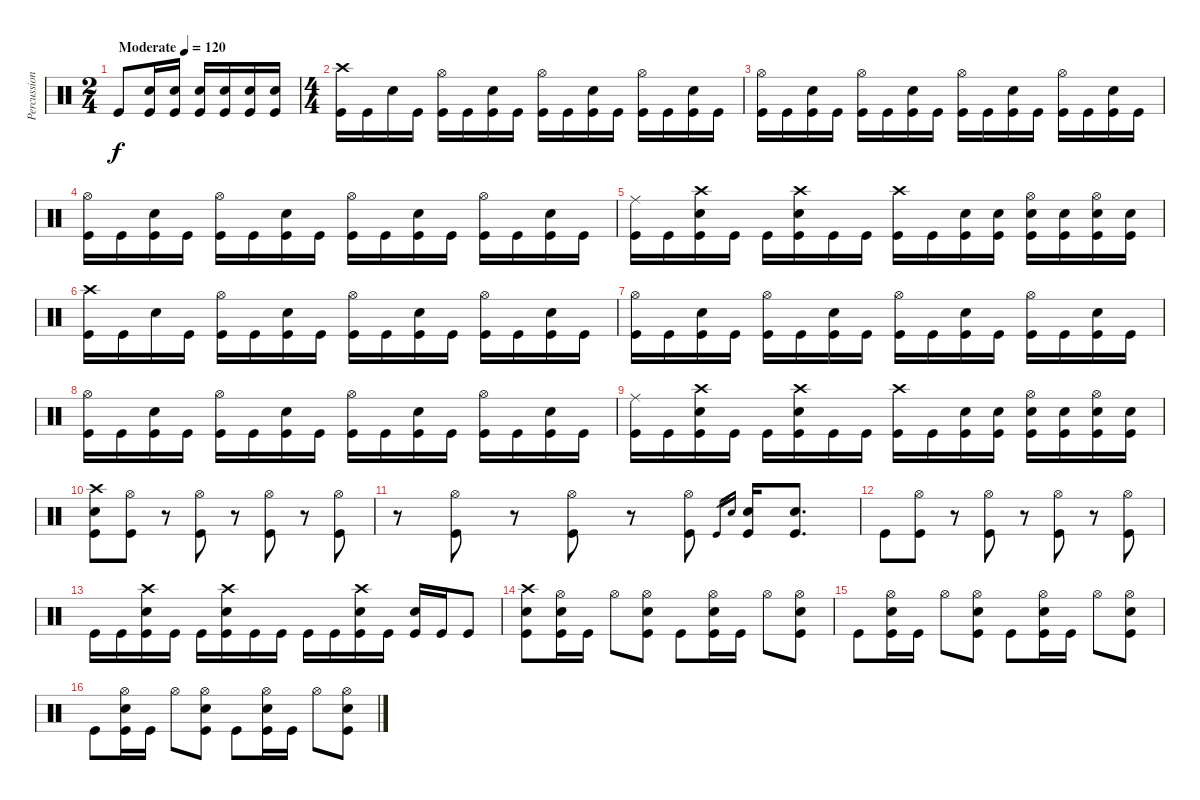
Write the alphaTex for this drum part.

\track ("Percussion" "Percussion") {instrument percussion}
\staff {score}
\articulation defaults
\ts (2 4)
\tempo (120 "Moderate")
\clef neutral
\ks c "Kick (hit)".8{dy f}
("Snare (hit) 2" "Kick (hit)").16 ("Snare (hit) 2" "Kick (hit)").16 ("Kick (hit)" "Snare (hit) 2").16 ("Kick (hit)" "Snare (hit) 2").16 ("Kick (hit)" "Snare (hit) 2").16 ("Kick (hit)" "Snare (hit) 2").16 |
\ts (4 4)
("Crash high (hit)" "Kick (hit)").16 "Kick (hit)".16 "Snare (hit) 2".16 "Kick (hit)".16 ("Kick (hit)" "Hi-Hat (open)").16 "Kick (hit)".16 ("Kick (hit)" "Snare (hit) 2").16 "Kick (hit)".16 ("Kick (hit)" "Hi-Hat (open)").16 "Kick (hit)".16 ("Kick (hit)" "Snare (hit) 2").16 "Kick (hit)".16 ("Kick (hit)" "Hi-Hat (open)").16 "Kick (hit)".16 ("Kick (hit)" "Snare (hit) 2").16 "Kick (hit)".16 |
("Kick (hit)" "Hi-Hat (open)").16 "Kick (hit)".16 ("Kick (hit)" "Snare (hit) 2").16 "Kick (hit)".16 ("Kick (hit)" "Hi-Hat (open)").16 "Kick (hit)".16 ("Kick (hit)" "Snare (hit) 2").16 "Kick (hit)".16 ("Kick (hit)" "Hi-Hat (open)").16 "Kick (hit)".16 ("Kick (hit)" "Snare (hit) 2").16 "Kick (hit)".16 ("Kick (hit)" "Hi-Hat (open)").16 "Kick (hit)".16 ("Kick (hit)" "Snare (hit) 2").16 "Kick (hit)".16 |
("Kick (hit)" "Hi-Hat (open)").16 "Kick (hit)".16 ("Kick (hit)" "Snare (hit) 2").16 "Kick (hit)".16 ("Kick (hit)" "Hi-Hat (open)").16 "Kick (hit)".16 ("Kick (hit)" "Snare (hit) 2").16 "Kick (hit)".16 ("Kick (hit)" "Hi-Hat (open)").16 "Kick (hit)".16 ("Kick (hit)" "Snare (hit) 2").16 "Kick (hit)".16 ("Kick (hit)" "Hi-Hat (open)").16 "Kick (hit)".16 ("Kick (hit)" "Snare (hit) 2").16 "Kick (hit)".16 |
("Kick (hit)" "Ride (middle)").16 "Kick (hit)".16 ("Snare (hit) 2" "Crash high (hit)" "Kick (hit)").16 "Kick (hit)".16 "Kick (hit)".16 ("Snare (hit) 2" "Crash high (hit)" "Kick (hit)").16 "Kick (hit)".16 "Kick (hit)".16 ("Kick (hit)" "Crash high (hit)").16 "Kick (hit)".16 ("Snare (hit) 2" "Kick (hit)").16 ("Kick (hit)" "Snare (hit) 2").16 ("Kick (hit)" "Snare (hit) 2" "Hi-Hat (open)").16 ("Snare (hit) 2" "Kick (hit)").16 ("Kick (hit)" "Snare (hit) 2" "Hi-Hat (open)").16 ("Kick (hit)" "Snare (hit) 2").16 |
("Crash high (hit)" "Kick (hit)").16 "Kick (hit)".16 "Snare (hit) 2".16 "Kick (hit)".16 ("Kick (hit)" "Hi-Hat (open)").16 "Kick (hit)".16 ("Kick (hit)" "Snare (hit) 2").16 "Kick (hit)".16 ("Kick (hit)" "Hi-Hat (open)").16 "Kick (hit)".16 ("Kick (hit)" "Snare (hit) 2").16 "Kick (hit)".16 ("Kick (hit)" "Hi-Hat (open)").16 "Kick (hit)".16 ("Kick (hit)" "Snare (hit) 2").16 "Kick (hit)".16 |
("Kick (hit)" "Hi-Hat (open)").16 "Kick (hit)".16 ("Kick (hit)" "Snare (hit) 2").16 "Kick (hit)".16 ("Kick (hit)" "Hi-Hat (open)").16 "Kick (hit)".16 ("Kick (hit)" "Snare (hit) 2").16 "Kick (hit)".16 ("Kick (hit)" "Hi-Hat (open)").16 "Kick (hit)".16 ("Kick (hit)" "Snare (hit) 2").16 "Kick (hit)".16 ("Kick (hit)" "Hi-Hat (open)").16 "Kick (hit)".16 ("Kick (hit)" "Snare (hit) 2").16 "Kick (hit)".16 |
("Kick (hit)" "Hi-Hat (open)").16 "Kick (hit)".16 ("Kick (hit)" "Snare (hit) 2").16 "Kick (hit)".16 ("Kick (hit)" "Hi-Hat (open)").16 "Kick (hit)".16 ("Kick (hit)" "Snare (hit) 2").16 "Kick (hit)".16 ("Kick (hit)" "Hi-Hat (open)").16 "Kick (hit)".16 ("Kick (hit)" "Snare (hit) 2").16 "Kick (hit)".16 ("Kick (hit)" "Hi-Hat (open)").16 "Kick (hit)".16 ("Kick (hit)" "Snare (hit) 2").16 "Kick (hit)".16 |
("Kick (hit)" "Ride (middle)").16 "Kick (hit)".16 ("Snare (hit) 2" "Crash high (hit)" "Kick (hit)").16 "Kick (hit)".16 "Kick (hit)".16 ("Snare (hit) 2" "Crash high (hit)" "Kick (hit)").16 "Kick (hit)".16 "Kick (hit)".16 ("Kick (hit)" "Crash high (hit)").16 "Kick (hit)".16 ("Snare (hit) 2" "Kick (hit)").16 ("Kick (hit)" "Snare (hit) 2").16 ("Kick (hit)" "Snare (hit) 2" "Hi-Hat (open)").16 ("Snare (hit) 2" "Kick (hit)").16 ("Kick (hit)" "Snare (hit) 2" "Hi-Hat (open)").16 ("Kick (hit)" "Snare (hit) 2").16 |
("Snare (hit) 2" "Kick (hit)" "Crash high (hit)").8 ("Hi-Hat (open)" "Kick (hit)").8 r.8 ("Hi-Hat (open)" "Kick (hit)").8 r.8 ("Kick (hit)" "Hi-Hat (open)").8 r.8 ("Kick (hit)" "Hi-Hat (open)").8 |
r.8 ("Hi-Hat (open)" "Kick (hit)").8 r.8 ("Kick (hit)" "Hi-Hat (open)").8 r.8 ("Kick (hit)" "Hi-Hat (open)").8 "Kick (hit)".16{gr} "Snare (hit) 2".16{gr} ("Kick (hit)" "Snare (hit) 2").16 ("Kick (hit)" "Snare (hit) 2").8{d} |
"Kick (hit)".8 ("Hi-Hat (open)" "Kick (hit)").8 r.8 ("Kick (hit)" "Hi-Hat (open)").8 r.8 ("Kick (hit)" "Hi-Hat (open)").8 r.8 ("Kick (hit)" "Hi-Hat (open)").8 |
"Kick (hit)".16 "Kick (hit)".16 ("Snare (hit) 2" "Crash high (hit)" "Kick (hit)").16 "Kick (hit)".16 "Kick (hit)".16 ("Snare (hit) 2" "Crash high (hit)" "Kick (hit)").16 "Kick (hit)".16 "Kick (hit)".16 "Kick (hit)".16 "Kick (hit)".16 ("Snare (hit) 2" "Kick (hit)" "Crash high (hit)").16 "Kick (hit)".16 ("Kick (hit)" "Snare (hit) 2").16 "Kick (hit)".16 "Kick (hit)".8 |
("Kick (hit)" "Crash high (hit)" "Snare (hit) 2").8 ("Kick (hit)" "Hi-Hat (open)" "Snare (hit) 2").16 "Kick (hit)".16 "Hi-Hat (open)".8 ("Kick (hit)" "Hi-Hat (open)" "Snare (hit) 2").8 "Kick (hit)".8 ("Kick (hit)" "Hi-Hat (open)" "Snare (hit) 2").16 "Kick (hit)".16 "Hi-Hat (open)".8 ("Kick (hit)" "Hi-Hat (open)" "Snare (hit) 2").8 |
"Kick (hit)".8 ("Kick (hit)" "Hi-Hat (open)" "Snare (hit) 2").16 "Kick (hit)".16 "Hi-Hat (open)".8 ("Kick (hit)" "Hi-Hat (open)" "Snare (hit) 2").8 "Kick (hit)".8 ("Kick (hit)" "Hi-Hat (open)" "Snare (hit) 2").16 "Kick (hit)".16 "Hi-Hat (open)".8 ("Kick (hit)" "Hi-Hat (open)" "Snare (hit) 2").8 |
"Kick (hit)".8 ("Kick (hit)" "Hi-Hat (open)" "Snare (hit) 2").16 "Kick (hit)".16 "Hi-Hat (open)".8 ("Kick (hit)" "Hi-Hat (open)" "Snare (hit) 2").8 "Kick (hit)".8 ("Kick (hit)" "Hi-Hat (open)" "Snare (hit) 2").16 "Kick (hit)".16 "Hi-Hat (open)".8 ("Kick (hit)" "Hi-Hat (open)" "Snare (hit) 2").8
